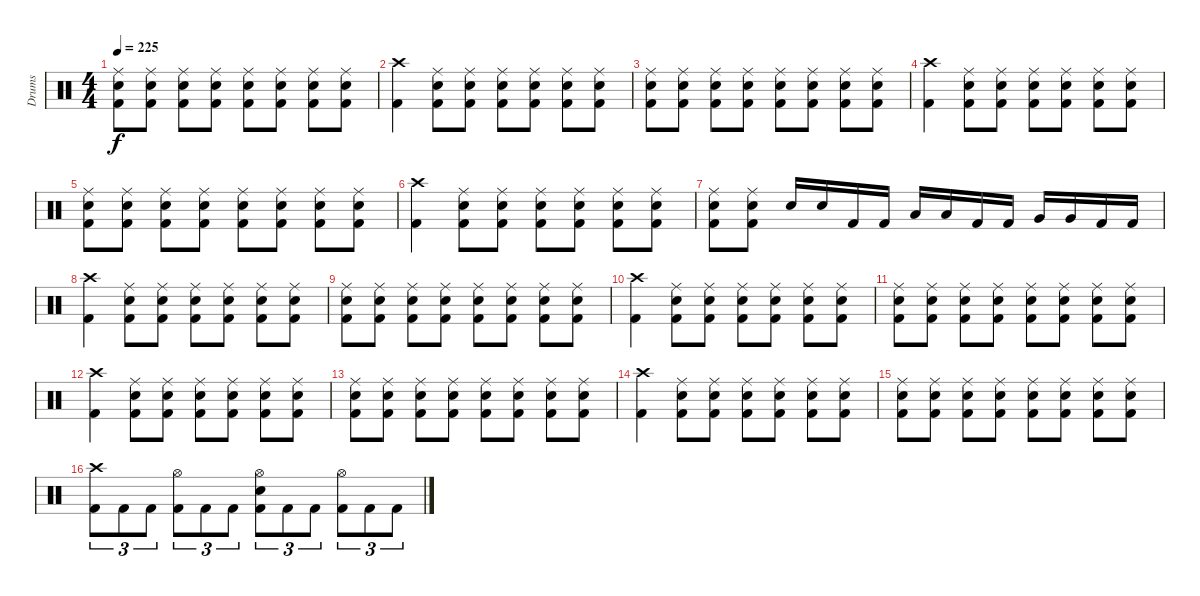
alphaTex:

\track ("Drums" "Drums") {instrument percussion}
\staff {score}
\articulation defaults
\ts (4 4)
\tempo 225
\clef neutral
\ks c
("Ride (middle)" "Electric Snare (hit)" "Kick (hit) 2").8{dy f} ("Ride (middle)" "Electric Snare (hit)" "Kick (hit) 2").8 ("Ride (middle)" "Electric Snare (hit)" "Kick (hit) 2").8 ("Ride (middle)" "Electric Snare (hit)" "Kick (hit) 2").8 ("Ride (middle)" "Electric Snare (hit)" "Kick (hit) 2").8 ("Ride (middle)" "Electric Snare (hit)" "Kick (hit) 2").8 ("Ride (middle)" "Electric Snare (hit)" "Kick (hit) 2").8 ("Ride (middle)" "Electric Snare (hit)" "Kick (hit) 2").8 |
("Crash high (hit)" "Kick (hit) 2").4 ("Ride (middle)" "Electric Snare (hit)" "Kick (hit) 2").8 ("Ride (middle)" "Electric Snare (hit)" "Kick (hit) 2").8 ("Ride (middle)" "Electric Snare (hit)" "Kick (hit) 2").8 ("Ride (middle)" "Electric Snare (hit)" "Kick (hit) 2").8 ("Ride (middle)" "Electric Snare (hit)" "Kick (hit) 2").8 ("Ride (middle)" "Electric Snare (hit)" "Kick (hit) 2").8 |
("Ride (middle)" "Electric Snare (hit)" "Kick (hit) 2").8 ("Ride (middle)" "Electric Snare (hit)" "Kick (hit) 2").8 ("Ride (middle)" "Electric Snare (hit)" "Kick (hit) 2").8 ("Ride (middle)" "Electric Snare (hit)" "Kick (hit) 2").8 ("Ride (middle)" "Electric Snare (hit)" "Kick (hit) 2").8 ("Ride (middle)" "Electric Snare (hit)" "Kick (hit) 2").8 ("Ride (middle)" "Electric Snare (hit)" "Kick (hit) 2").8 ("Ride (middle)" "Electric Snare (hit)" "Kick (hit) 2").8 |
("Crash high (hit)" "Kick (hit) 2").4 ("Ride (middle)" "Electric Snare (hit)" "Kick (hit) 2").8 ("Ride (middle)" "Electric Snare (hit)" "Kick (hit) 2").8 ("Ride (middle)" "Electric Snare (hit)" "Kick (hit) 2").8 ("Ride (middle)" "Electric Snare (hit)" "Kick (hit) 2").8 ("Ride (middle)" "Electric Snare (hit)" "Kick (hit) 2").8 ("Ride (middle)" "Electric Snare (hit)" "Kick (hit) 2").8 |
("Ride (middle)" "Electric Snare (hit)" "Kick (hit) 2").8 ("Ride (middle)" "Electric Snare (hit)" "Kick (hit) 2").8 ("Ride (middle)" "Electric Snare (hit)" "Kick (hit) 2").8 ("Ride (middle)" "Electric Snare (hit)" "Kick (hit) 2").8 ("Ride (middle)" "Electric Snare (hit)" "Kick (hit) 2").8 ("Ride (middle)" "Electric Snare (hit)" "Kick (hit) 2").8 ("Ride (middle)" "Electric Snare (hit)" "Kick (hit) 2").8 ("Ride (middle)" "Electric Snare (hit)" "Kick (hit) 2").8 |
("Crash high (hit)" "Kick (hit) 2").4 ("Ride (middle)" "Electric Snare (hit)" "Kick (hit) 2").8 ("Ride (middle)" "Electric Snare (hit)" "Kick (hit) 2").8 ("Ride (middle)" "Electric Snare (hit)" "Kick (hit) 2").8 ("Ride (middle)" "Electric Snare (hit)" "Kick (hit) 2").8 ("Ride (middle)" "Electric Snare (hit)" "Kick (hit) 2").8 ("Ride (middle)" "Electric Snare (hit)" "Kick (hit) 2").8 |
("Ride (middle)" "Electric Snare (hit)" "Kick (hit) 2").8 ("Ride (middle)" "Electric Snare (hit)" "Kick (hit) 2").8 "Electric Snare (hit)".16 "Electric Snare (hit)".16 "Kick (hit) 2".16 "Kick (hit) 2".16 "Low Tom (hit)".16 "Low Tom (hit)".16 "Kick (hit) 2".16 "Kick (hit) 2".16 "Very Low Tom (hit)".16 "Very Low Tom (hit)".16 "Kick (hit) 2".16 "Kick (hit) 2".16 |
("Crash high (hit)" "Kick (hit) 2").4 ("Ride (middle)" "Electric Snare (hit)" "Kick (hit) 2").8 ("Ride (middle)" "Electric Snare (hit)" "Kick (hit) 2").8 ("Ride (middle)" "Electric Snare (hit)" "Kick (hit) 2").8 ("Ride (middle)" "Electric Snare (hit)" "Kick (hit) 2").8 ("Ride (middle)" "Electric Snare (hit)" "Kick (hit) 2").8 ("Ride (middle)" "Electric Snare (hit)" "Kick (hit) 2").8 |
("Ride (middle)" "Electric Snare (hit)" "Kick (hit) 2").8 ("Ride (middle)" "Electric Snare (hit)" "Kick (hit) 2").8 ("Ride (middle)" "Electric Snare (hit)" "Kick (hit) 2").8 ("Ride (middle)" "Electric Snare (hit)" "Kick (hit) 2").8 ("Ride (middle)" "Electric Snare (hit)" "Kick (hit) 2").8 ("Ride (middle)" "Electric Snare (hit)" "Kick (hit) 2").8 ("Ride (middle)" "Electric Snare (hit)" "Kick (hit) 2").8 ("Ride (middle)" "Electric Snare (hit)" "Kick (hit) 2").8 |
("Crash high (hit)" "Kick (hit) 2").4 ("Ride (middle)" "Electric Snare (hit)" "Kick (hit) 2").8 ("Ride (middle)" "Electric Snare (hit)" "Kick (hit) 2").8 ("Ride (middle)" "Electric Snare (hit)" "Kick (hit) 2").8 ("Ride (middle)" "Electric Snare (hit)" "Kick (hit) 2").8 ("Ride (middle)" "Electric Snare (hit)" "Kick (hit) 2").8 ("Ride (middle)" "Electric Snare (hit)" "Kick (hit) 2").8 |
("Ride (middle)" "Electric Snare (hit)" "Kick (hit) 2").8 ("Ride (middle)" "Electric Snare (hit)" "Kick (hit) 2").8 ("Ride (middle)" "Electric Snare (hit)" "Kick (hit) 2").8 ("Ride (middle)" "Electric Snare (hit)" "Kick (hit) 2").8 ("Ride (middle)" "Electric Snare (hit)" "Kick (hit) 2").8 ("Ride (middle)" "Electric Snare (hit)" "Kick (hit) 2").8 ("Ride (middle)" "Electric Snare (hit)" "Kick (hit) 2").8 ("Ride (middle)" "Electric Snare (hit)" "Kick (hit) 2").8 |
("Crash high (hit)" "Kick (hit) 2").4 ("Ride (middle)" "Electric Snare (hit)" "Kick (hit) 2").8 ("Ride (middle)" "Electric Snare (hit)" "Kick (hit) 2").8 ("Ride (middle)" "Electric Snare (hit)" "Kick (hit) 2").8 ("Ride (middle)" "Electric Snare (hit)" "Kick (hit) 2").8 ("Ride (middle)" "Electric Snare (hit)" "Kick (hit) 2").8 ("Ride (middle)" "Electric Snare (hit)" "Kick (hit) 2").8 |
("Ride (middle)" "Electric Snare (hit)" "Kick (hit) 2").8 ("Ride (middle)" "Electric Snare (hit)" "Kick (hit) 2").8 ("Ride (middle)" "Electric Snare (hit)" "Kick (hit) 2").8 ("Ride (middle)" "Electric Snare (hit)" "Kick (hit) 2").8 ("Ride (middle)" "Electric Snare (hit)" "Kick (hit) 2").8 ("Ride (middle)" "Electric Snare (hit)" "Kick (hit) 2").8 ("Ride (middle)" "Electric Snare (hit)" "Kick (hit) 2").8 ("Ride (middle)" "Electric Snare (hit)" "Kick (hit) 2").8 |
("Crash high (hit)" "Kick (hit) 2").4 ("Ride (middle)" "Electric Snare (hit)" "Kick (hit) 2").8 ("Ride (middle)" "Electric Snare (hit)" "Kick (hit) 2").8 ("Ride (middle)" "Electric Snare (hit)" "Kick (hit) 2").8 ("Ride (middle)" "Electric Snare (hit)" "Kick (hit) 2").8 ("Ride (middle)" "Electric Snare (hit)" "Kick (hit) 2").8 ("Ride (middle)" "Electric Snare (hit)" "Kick (hit) 2").8 |
("Ride (middle)" "Electric Snare (hit)" "Kick (hit) 2").8 ("Ride (middle)" "Electric Snare (hit)" "Kick (hit) 2").8 ("Ride (middle)" "Electric Snare (hit)" "Kick (hit) 2").8 ("Ride (middle)" "Electric Snare (hit)" "Kick (hit) 2").8 ("Ride (middle)" "Electric Snare (hit)" "Kick (hit) 2").8 ("Ride (middle)" "Electric Snare (hit)" "Kick (hit) 2").8 ("Ride (middle)" "Electric Snare (hit)" "Kick (hit) 2").8 ("Ride (middle)" "Electric Snare (hit)" "Kick (hit) 2").8 |
("Crash high (hit)" "Kick (hit) 2").8{tu (3 2)} "Kick (hit) 2".8{tu (3 2)} "Kick (hit) 2".8{tu (3 2)} ("Hi-Hat (open)" "Kick (hit) 2").8{tu (3 2)} "Kick (hit) 2".8{tu (3 2)} "Kick (hit) 2".8{tu (3 2)} ("Hi-Hat (open)" "Electric Snare (hit)" "Kick (hit) 2").8{tu (3 2)} "Kick (hit) 2".8{tu (3 2)} "Kick (hit) 2".8{tu (3 2)} ("Hi-Hat (open)" "Kick (hit) 2").8{tu (3 2)} "Kick (hit) 2".8{tu (3 2)} "Kick (hit) 2".8{tu (3 2)}
